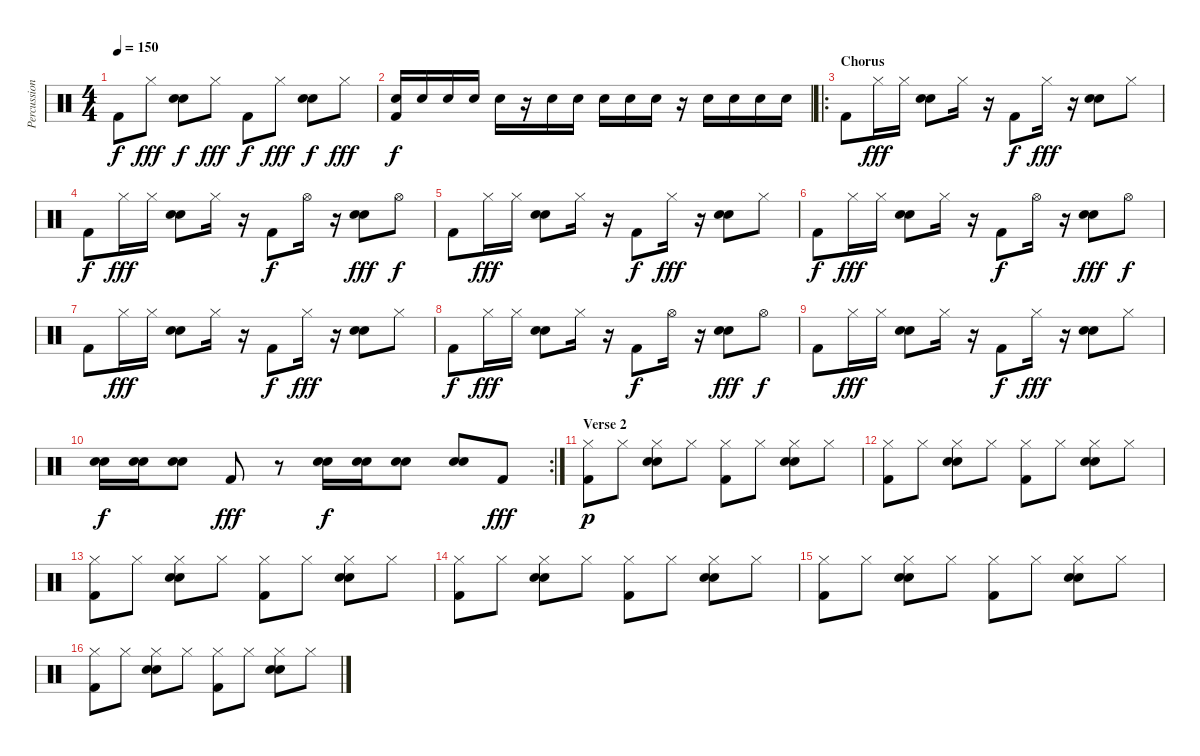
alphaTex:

\track ("Percussions" "Percussion") {instrument percussion}
\staff {score}
\articulation defaults
\ts (4 4)
\tempo 150
\clef neutral
\ks c "Kick (hit) 2".8{dy f} "Hi-Hat (closed)".8{dy fff}
("Snare (hit) 2" "Electric Snare (hit)").8{dy f} "Hi-Hat (closed)".8{dy fff} "Kick (hit) 2".8{dy f} "Hi-Hat (closed)".8{dy fff} ("Snare (hit) 2" "Electric Snare (hit)").8{dy f} "Hi-Hat (closed)".8{dy fff} |
("Kick (hit) 2" "Snare (hit) 2").16{dy f} "Snare (hit) 2".16 "Snare (hit) 2".16 "Snare (hit) 2".16 "Snare (hit) 2".16 r.16 "Snare (hit) 2".16 "Snare (hit) 2".16 "Snare (hit) 2".16 "Snare (hit) 2"{x}.16 "Snare (hit) 2".16 r.16 "Snare (hit) 2".16 "Snare (hit) 2".16 "Snare (hit) 2".16 "Snare (hit) 2".16 |
\ro
\section ("" "Chorus")
"Kick (hit) 2".8 "Hi-Hat (closed)".16{dy fff} "Hi-Hat (closed)".16 ("Electric Snare (hit)" "Snare (hit) 2").8 "Hi-Hat (closed)".16 r.16 "Kick (hit) 2".8{dy f} "Hi-Hat (closed)".16{dy fff} r.16 ("Electric Snare (hit)" "Snare (hit) 2").8 "Hi-Hat (closed)".8 |
"Kick (hit) 2".8{dy f} "Hi-Hat (closed)".16{dy fff} "Hi-Hat (closed)".16 ("Electric Snare (hit)" "Snare (hit) 2").8 "Hi-Hat (closed)".16 r.16 "Kick (hit) 2".8{dy f} "Hi-Hat (open)".16 r.16 ("Electric Snare (hit)" "Snare (hit) 2").8{dy fff} "Hi-Hat (open)".8{dy f} |
"Kick (hit) 2".8 "Hi-Hat (closed)".16{dy fff} "Hi-Hat (closed)".16 ("Electric Snare (hit)" "Snare (hit) 2").8 "Hi-Hat (closed)".16 r.16 "Kick (hit) 2".8{dy f} "Hi-Hat (closed)".16{dy fff} r.16 ("Electric Snare (hit)" "Snare (hit) 2").8 "Hi-Hat (closed)".8 |
"Kick (hit) 2".8{dy f} "Hi-Hat (closed)".16{dy fff} "Hi-Hat (closed)".16 ("Electric Snare (hit)" "Snare (hit) 2").8 "Hi-Hat (closed)".16 r.16 "Kick (hit) 2".8{dy f} "Hi-Hat (open)".16 r.16 ("Electric Snare (hit)" "Snare (hit) 2").8{dy fff} "Hi-Hat (open)".8{dy f} |
"Kick (hit) 2".8 "Hi-Hat (closed)".16{dy fff} "Hi-Hat (closed)".16 ("Electric Snare (hit)" "Snare (hit) 2").8 "Hi-Hat (closed)".16 r.16 "Kick (hit) 2".8{dy f} "Hi-Hat (closed)".16{dy fff} r.16 ("Electric Snare (hit)" "Snare (hit) 2").8 "Hi-Hat (closed)".8 |
"Kick (hit) 2".8{dy f} "Hi-Hat (closed)".16{dy fff} "Hi-Hat (closed)".16 ("Electric Snare (hit)" "Snare (hit) 2").8 "Hi-Hat (closed)".16 r.16 "Kick (hit) 2".8{dy f} "Hi-Hat (open)".16 r.16 ("Electric Snare (hit)" "Snare (hit) 2").8{dy fff} "Hi-Hat (open)".8{dy f} |
"Kick (hit) 2".8 "Hi-Hat (closed)".16{dy fff} "Hi-Hat (closed)".16 ("Electric Snare (hit)" "Snare (hit) 2").8 "Hi-Hat (closed)".16 r.16 "Kick (hit) 2".8{dy f} "Hi-Hat (closed)".16{dy fff} r.16 ("Electric Snare (hit)" "Snare (hit) 2").8 "Hi-Hat (closed)".8 |
\rc 2
("Snare (hit) 2" "Electric Snare (hit)").16{dy f} ("Snare (hit) 2" "Electric Snare (hit)").16 ("Snare (hit) 2" "Electric Snare (hit)").8 "Kick (hit) 2".8{dy fff} r.8 ("Snare (hit) 2" "Electric Snare (hit)").16{dy f} ("Snare (hit) 2" "Electric Snare (hit)").16 ("Snare (hit) 2" "Electric Snare (hit)").8 ("Snare (hit) 2" "Electric Snare (hit)").8 "Kick (hit) 2".8{dy fff} |
\section ("" "Verse 2")
("Kick (hit) 2" "Hi-Hat (closed)").8{dy p} "Hi-Hat (closed)".8 ("Electric Snare (hit)" "Snare (hit) 2" "Hi-Hat (closed)").8 "Hi-Hat (closed)".8 ("Kick (hit) 2" "Hi-Hat (closed)").8 "Hi-Hat (closed)".8 ("Electric Snare (hit)" "Snare (hit) 2" "Hi-Hat (closed)").8 "Hi-Hat (closed)".8 |
("Kick (hit) 2" "Hi-Hat (closed)").8 "Hi-Hat (closed)".8 ("Electric Snare (hit)" "Snare (hit) 2" "Hi-Hat (closed)").8 "Hi-Hat (closed)".8 ("Kick (hit) 2" "Hi-Hat (closed)").8 "Hi-Hat (closed)".8 ("Electric Snare (hit)" "Snare (hit) 2" "Hi-Hat (closed)").8 "Hi-Hat (closed)".8 |
("Kick (hit) 2" "Hi-Hat (closed)").8 "Hi-Hat (closed)".8 ("Electric Snare (hit)" "Snare (hit) 2" "Hi-Hat (closed)").8 "Hi-Hat (closed)".8 ("Kick (hit) 2" "Hi-Hat (closed)").8 "Hi-Hat (closed)".8 ("Electric Snare (hit)" "Snare (hit) 2" "Hi-Hat (closed)").8 "Hi-Hat (closed)".8 |
("Kick (hit) 2" "Hi-Hat (closed)").8 "Hi-Hat (closed)".8 ("Electric Snare (hit)" "Snare (hit) 2" "Hi-Hat (closed)").8 "Hi-Hat (closed)".8 ("Kick (hit) 2" "Hi-Hat (closed)").8 "Hi-Hat (closed)".8 ("Electric Snare (hit)" "Snare (hit) 2" "Hi-Hat (closed)").8 "Hi-Hat (closed)".8 |
("Kick (hit) 2" "Hi-Hat (closed)").8 "Hi-Hat (closed)".8 ("Electric Snare (hit)" "Snare (hit) 2" "Hi-Hat (closed)").8 "Hi-Hat (closed)".8 ("Kick (hit) 2" "Hi-Hat (closed)").8 "Hi-Hat (closed)".8 ("Electric Snare (hit)" "Snare (hit) 2" "Hi-Hat (closed)").8 "Hi-Hat (closed)".8 |
("Kick (hit) 2" "Hi-Hat (closed)").8 "Hi-Hat (closed)".8 ("Electric Snare (hit)" "Snare (hit) 2" "Hi-Hat (closed)").8 "Hi-Hat (closed)".8 ("Kick (hit) 2" "Hi-Hat (closed)").8 "Hi-Hat (closed)".8 ("Electric Snare (hit)" "Snare (hit) 2" "Hi-Hat (closed)").8 "Hi-Hat (closed)".8
